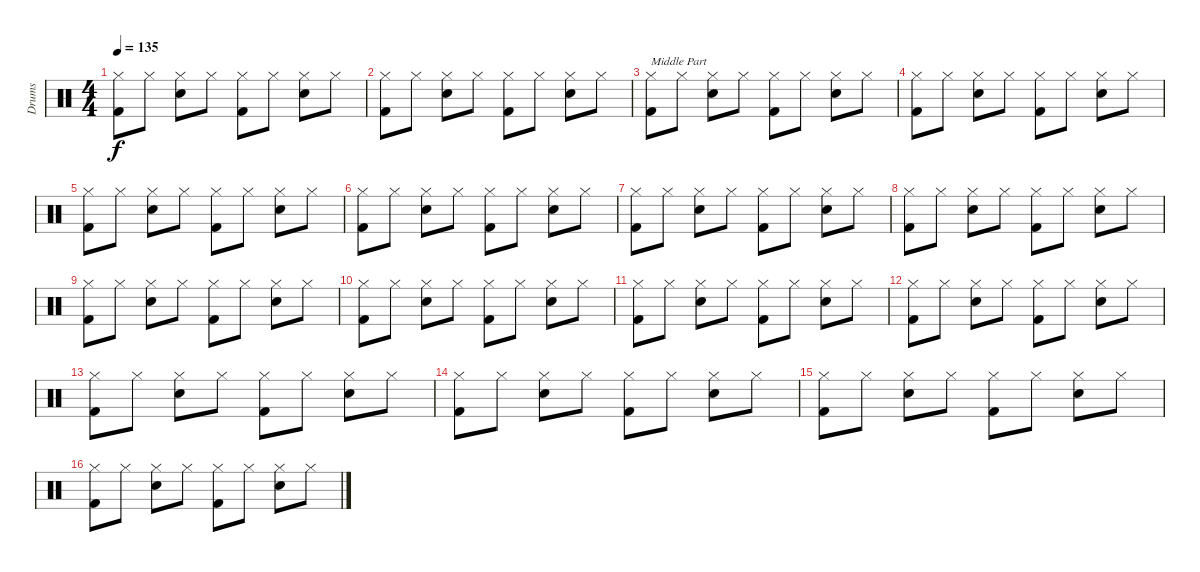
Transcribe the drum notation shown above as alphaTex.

\track ("Drums" "Drums") {instrument percussion}
\staff {score}
\articulation defaults
\ts (4 4)
\tempo 135
\clef neutral
\ks c
("Hi-Hat (closed)" "Kick (hit) 2").8{dy f} "Hi-Hat (closed)".8 ("Hi-Hat (closed)" "Snare (hit) 2").8 "Hi-Hat (closed)".8 ("Hi-Hat (closed)" "Kick (hit) 2").8 "Hi-Hat (closed)".8 ("Hi-Hat (closed)" "Snare (hit) 2").8 "Hi-Hat (closed)".8 |
("Hi-Hat (closed)" "Kick (hit) 2").8 "Hi-Hat (closed)".8 ("Hi-Hat (closed)" "Snare (hit) 2").8 "Hi-Hat (closed)".8 ("Hi-Hat (closed)" "Kick (hit) 2").8 "Hi-Hat (closed)".8 ("Hi-Hat (closed)" "Snare (hit) 2").8 "Hi-Hat (closed)".8 |
("Hi-Hat (closed)" "Kick (hit) 2").8{txt "Middle Part"} "Hi-Hat (closed)".8 ("Hi-Hat (closed)" "Snare (hit) 2").8 "Hi-Hat (closed)".8 ("Hi-Hat (closed)" "Kick (hit) 2").8 "Hi-Hat (closed)".8 ("Hi-Hat (closed)" "Snare (hit) 2").8 "Hi-Hat (closed)".8 |
("Hi-Hat (closed)" "Kick (hit) 2").8 "Hi-Hat (closed)".8 ("Hi-Hat (closed)" "Snare (hit) 2").8 "Hi-Hat (closed)".8 ("Hi-Hat (closed)" "Kick (hit) 2").8 "Hi-Hat (closed)".8 ("Hi-Hat (closed)" "Snare (hit) 2").8 "Hi-Hat (closed)".8 |
("Hi-Hat (closed)" "Kick (hit) 2").8 "Hi-Hat (closed)".8 ("Hi-Hat (closed)" "Snare (hit) 2").8 "Hi-Hat (closed)".8 ("Hi-Hat (closed)" "Kick (hit) 2").8 "Hi-Hat (closed)".8 ("Hi-Hat (closed)" "Snare (hit) 2").8 "Hi-Hat (closed)".8 |
("Hi-Hat (closed)" "Kick (hit) 2").8 "Hi-Hat (closed)".8 ("Hi-Hat (closed)" "Snare (hit) 2").8 "Hi-Hat (closed)".8 ("Hi-Hat (closed)" "Kick (hit) 2").8 "Hi-Hat (closed)".8 ("Hi-Hat (closed)" "Snare (hit) 2").8 "Hi-Hat (closed)".8 |
("Hi-Hat (closed)" "Kick (hit) 2").8 "Hi-Hat (closed)".8 ("Hi-Hat (closed)" "Snare (hit) 2").8 "Hi-Hat (closed)".8 ("Hi-Hat (closed)" "Kick (hit) 2").8 "Hi-Hat (closed)".8 ("Hi-Hat (closed)" "Snare (hit) 2").8 "Hi-Hat (closed)".8 |
("Hi-Hat (closed)" "Kick (hit) 2").8 "Hi-Hat (closed)".8 ("Hi-Hat (closed)" "Snare (hit) 2").8 "Hi-Hat (closed)".8 ("Hi-Hat (closed)" "Kick (hit) 2").8 "Hi-Hat (closed)".8 ("Hi-Hat (closed)" "Snare (hit) 2").8 "Hi-Hat (closed)".8 |
("Hi-Hat (closed)" "Kick (hit) 2").8 "Hi-Hat (closed)".8 ("Hi-Hat (closed)" "Snare (hit) 2").8 "Hi-Hat (closed)".8 ("Hi-Hat (closed)" "Kick (hit) 2").8 "Hi-Hat (closed)".8 ("Hi-Hat (closed)" "Snare (hit) 2").8 "Hi-Hat (closed)".8 |
("Hi-Hat (closed)" "Kick (hit) 2").8 "Hi-Hat (closed)".8 ("Hi-Hat (closed)" "Snare (hit) 2").8 "Hi-Hat (closed)".8 ("Hi-Hat (closed)" "Kick (hit) 2").8 "Hi-Hat (closed)".8 ("Hi-Hat (closed)" "Snare (hit) 2").8 "Hi-Hat (closed)".8 |
("Hi-Hat (closed)" "Kick (hit) 2").8 "Hi-Hat (closed)".8 ("Hi-Hat (closed)" "Snare (hit) 2").8 "Hi-Hat (closed)".8 ("Hi-Hat (closed)" "Kick (hit) 2").8 "Hi-Hat (closed)".8 ("Hi-Hat (closed)" "Snare (hit) 2").8 "Hi-Hat (closed)".8 |
("Hi-Hat (closed)" "Kick (hit) 2").8 "Hi-Hat (closed)".8 ("Hi-Hat (closed)" "Snare (hit) 2").8 "Hi-Hat (closed)".8 ("Hi-Hat (closed)" "Kick (hit) 2").8 "Hi-Hat (closed)".8 ("Hi-Hat (closed)" "Snare (hit) 2").8 "Hi-Hat (closed)".8 |
("Hi-Hat (closed)" "Kick (hit) 2").8 "Hi-Hat (closed)".8 ("Hi-Hat (closed)" "Snare (hit) 2").8 "Hi-Hat (closed)".8 ("Hi-Hat (closed)" "Kick (hit) 2").8 "Hi-Hat (closed)".8 ("Hi-Hat (closed)" "Snare (hit) 2").8 "Hi-Hat (closed)".8 |
("Hi-Hat (closed)" "Kick (hit) 2").8 "Hi-Hat (closed)".8 ("Hi-Hat (closed)" "Snare (hit) 2").8 "Hi-Hat (closed)".8 ("Hi-Hat (closed)" "Kick (hit) 2").8 "Hi-Hat (closed)".8 ("Hi-Hat (closed)" "Snare (hit) 2").8 "Hi-Hat (closed)".8 |
("Hi-Hat (closed)" "Kick (hit) 2").8 "Hi-Hat (closed)".8 ("Hi-Hat (closed)" "Snare (hit) 2").8 "Hi-Hat (closed)".8 ("Hi-Hat (closed)" "Kick (hit) 2").8 "Hi-Hat (closed)".8 ("Hi-Hat (closed)" "Snare (hit) 2").8 "Hi-Hat (closed)".8 |
("Hi-Hat (closed)" "Kick (hit) 2").8 "Hi-Hat (closed)".8 ("Hi-Hat (closed)" "Snare (hit) 2").8 "Hi-Hat (closed)".8 ("Hi-Hat (closed)" "Kick (hit) 2").8 "Hi-Hat (closed)".8 ("Hi-Hat (closed)" "Snare (hit) 2").8 "Hi-Hat (closed)".8
